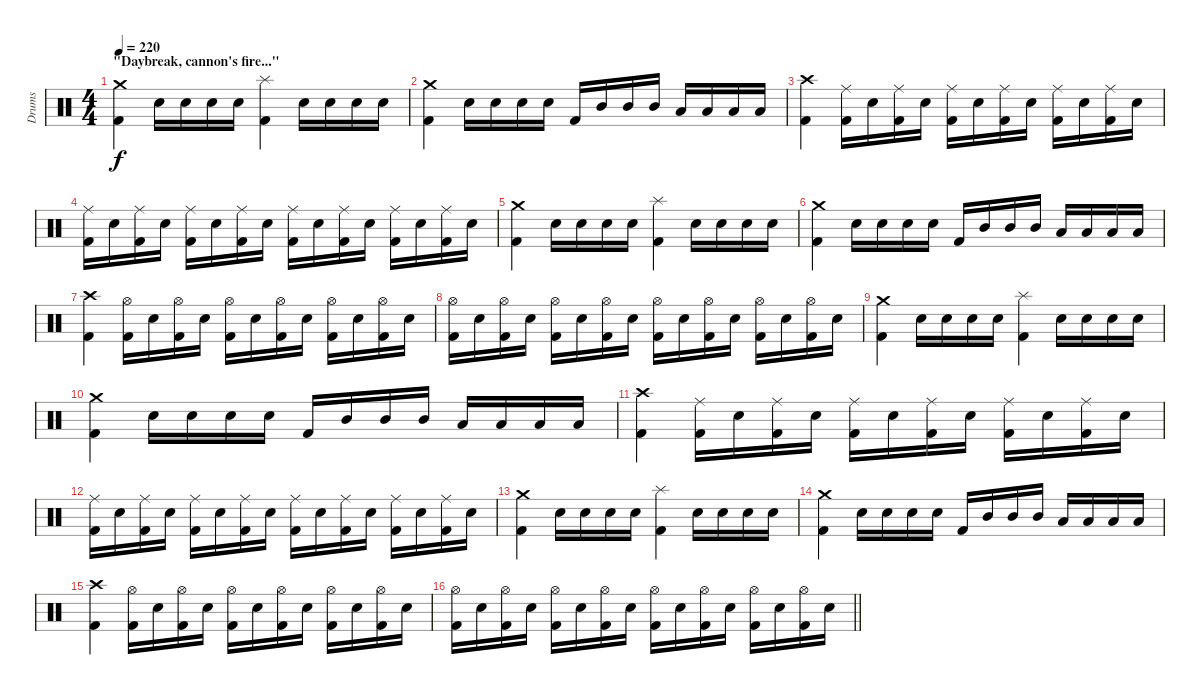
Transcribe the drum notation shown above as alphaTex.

\track ("Drums" "Drums") {instrument percussion}
\staff {score}
\articulation defaults
\ts (4 4)
\section ("" "\"Daybreak, cannon's fire...\"")
\tempo 220
\clef neutral
\ks c
("Crash medium (hit)" "Kick (hit) 2").4{dy f} "Snare (hit) 2".16 "Snare (hit) 2".16 "Snare (hit) 2".16 "Snare (hit) 2".16 ("Splash (hit)" "Kick (hit) 2").4 "Snare (hit) 2".16 "Snare (hit) 2".16 "Snare (hit) 2".16 "Snare (hit) 2".16 |
("Crash medium (hit)" "Kick (hit) 2").4 "Snare (hit) 2".16 "Snare (hit) 2".16 "Snare (hit) 2".16 "Snare (hit) 2".16 "Kick (hit) 2".16 "Mid Tom (hit)".16 "Mid Tom (hit)".16 "Mid Tom (hit)".16 "Low Tom (hit)".16 "Low Tom (hit)".16 "Low Tom (hit)".16 "Low Tom (hit)".16 |
("Crash high (hit)" "Kick (hit) 2").4 ("Ride (middle)" "Kick (hit) 2").16 "Snare (hit) 2".16 ("Ride (middle)" "Kick (hit) 2").16 "Snare (hit) 2".16 ("Ride (middle)" "Kick (hit) 2").16 "Snare (hit) 2".16 ("Ride (middle)" "Kick (hit) 2").16 "Snare (hit) 2".16 ("Ride (middle)" "Kick (hit) 2").16 "Snare (hit) 2".16 ("Ride (middle)" "Kick (hit) 2").16 "Snare (hit) 2".16 |
("Ride (middle)" "Kick (hit) 2").16 "Snare (hit) 2".16 ("Ride (middle)" "Kick (hit) 2").16 "Snare (hit) 2".16 ("Ride (middle)" "Kick (hit) 2").16 "Snare (hit) 2".16 ("Ride (middle)" "Kick (hit) 2").16 "Snare (hit) 2".16 ("Ride (middle)" "Kick (hit) 2").16 "Snare (hit) 2".16 ("Ride (middle)" "Kick (hit) 2").16 "Snare (hit) 2".16 ("Ride (middle)" "Kick (hit) 2").16 "Snare (hit) 2".16 ("Ride (middle)" "Kick (hit) 2").16 "Snare (hit) 2".16 |
("Crash medium (hit)" "Kick (hit) 2").4 "Snare (hit) 2".16 "Snare (hit) 2".16 "Snare (hit) 2".16 "Snare (hit) 2".16 ("Splash (hit)" "Kick (hit) 2").4 "Snare (hit) 2".16 "Snare (hit) 2".16 "Snare (hit) 2".16 "Snare (hit) 2".16 |
("Crash medium (hit)" "Kick (hit) 2").4 "Snare (hit) 2".16 "Snare (hit) 2".16 "Snare (hit) 2".16 "Snare (hit) 2".16 "Kick (hit) 2".16 "Mid Tom (hit)".16 "Mid Tom (hit)".16 "Mid Tom (hit)".16 "Low Tom (hit)".16 "Low Tom (hit)".16 "Low Tom (hit)".16 "Low Tom (hit)".16 |
("Crash high (hit)" "Kick (hit) 2").4 ("Hi-Hat (open)" "Kick (hit) 2").16 "Snare (hit) 2".16 ("Hi-Hat (open)" "Kick (hit) 2").16 "Snare (hit) 2".16 ("Hi-Hat (open)" "Kick (hit) 2").16 "Snare (hit) 2".16 ("Hi-Hat (open)" "Kick (hit) 2").16 "Snare (hit) 2".16 ("Hi-Hat (open)" "Kick (hit) 2").16 "Snare (hit) 2".16 ("Hi-Hat (open)" "Kick (hit) 2").16 "Snare (hit) 2".16 |
("Hi-Hat (open)" "Kick (hit) 2").16 "Snare (hit) 2".16 ("Hi-Hat (open)" "Kick (hit) 2").16 "Snare (hit) 2".16 ("Hi-Hat (open)" "Kick (hit) 2").16 "Snare (hit) 2".16 ("Hi-Hat (open)" "Kick (hit) 2").16 "Snare (hit) 2".16 ("Hi-Hat (open)" "Kick (hit) 2").16 "Snare (hit) 2".16 ("Hi-Hat (open)" "Kick (hit) 2").16 "Snare (hit) 2".16 ("Hi-Hat (open)" "Kick (hit) 2").16 "Snare (hit) 2".16 ("Hi-Hat (open)" "Kick (hit) 2").16 "Snare (hit) 2".16 |
("Crash medium (hit)" "Kick (hit) 2").4 "Snare (hit) 2".16 "Snare (hit) 2".16 "Snare (hit) 2".16 "Snare (hit) 2".16 ("Splash (hit)" "Kick (hit) 2").4 "Snare (hit) 2".16 "Snare (hit) 2".16 "Snare (hit) 2".16 "Snare (hit) 2".16 |
("Crash medium (hit)" "Kick (hit) 2").4 "Snare (hit) 2".16 "Snare (hit) 2".16 "Snare (hit) 2".16 "Snare (hit) 2".16 "Kick (hit) 2".16 "Mid Tom (hit)".16 "Mid Tom (hit)".16 "Mid Tom (hit)".16 "Low Tom (hit)".16 "Low Tom (hit)".16 "Low Tom (hit)".16 "Low Tom (hit)".16 |
("Crash high (hit)" "Kick (hit) 2").4 ("Ride (middle)" "Kick (hit) 2").16 "Snare (hit) 2".16 ("Ride (middle)" "Kick (hit) 2").16 "Snare (hit) 2".16 ("Ride (middle)" "Kick (hit) 2").16 "Snare (hit) 2".16 ("Ride (middle)" "Kick (hit) 2").16 "Snare (hit) 2".16 ("Ride (middle)" "Kick (hit) 2").16 "Snare (hit) 2".16 ("Ride (middle)" "Kick (hit) 2").16 "Snare (hit) 2".16 |
("Ride (middle)" "Kick (hit) 2").16 "Snare (hit) 2".16 ("Ride (middle)" "Kick (hit) 2").16 "Snare (hit) 2".16 ("Ride (middle)" "Kick (hit) 2").16 "Snare (hit) 2".16 ("Ride (middle)" "Kick (hit) 2").16 "Snare (hit) 2".16 ("Ride (middle)" "Kick (hit) 2").16 "Snare (hit) 2".16 ("Ride (middle)" "Kick (hit) 2").16 "Snare (hit) 2".16 ("Ride (middle)" "Kick (hit) 2").16 "Snare (hit) 2".16 ("Ride (middle)" "Kick (hit) 2").16 "Snare (hit) 2".16 |
("Crash medium (hit)" "Kick (hit) 2").4 "Snare (hit) 2".16 "Snare (hit) 2".16 "Snare (hit) 2".16 "Snare (hit) 2".16 ("Splash (hit)" "Kick (hit) 2").4 "Snare (hit) 2".16 "Snare (hit) 2".16 "Snare (hit) 2".16 "Snare (hit) 2".16 |
("Crash medium (hit)" "Kick (hit) 2").4 "Snare (hit) 2".16 "Snare (hit) 2".16 "Snare (hit) 2".16 "Snare (hit) 2".16 "Kick (hit) 2".16 "Mid Tom (hit)".16 "Mid Tom (hit)".16 "Mid Tom (hit)".16 "Low Tom (hit)".16 "Low Tom (hit)".16 "Low Tom (hit)".16 "Low Tom (hit)".16 |
("Crash high (hit)" "Kick (hit) 2").4 ("Hi-Hat (open)" "Kick (hit) 2").16 "Snare (hit) 2".16 ("Hi-Hat (open)" "Kick (hit) 2").16 "Snare (hit) 2".16 ("Hi-Hat (open)" "Kick (hit) 2").16 "Snare (hit) 2".16 ("Hi-Hat (open)" "Kick (hit) 2").16 "Snare (hit) 2".16 ("Hi-Hat (open)" "Kick (hit) 2").16 "Snare (hit) 2".16 ("Hi-Hat (open)" "Kick (hit) 2").16 "Snare (hit) 2".16 |
\barLineRight lightlight
("Hi-Hat (open)" "Kick (hit) 2").16 "Snare (hit) 2".16 ("Hi-Hat (open)" "Kick (hit) 2").16 "Snare (hit) 2".16 ("Hi-Hat (open)" "Kick (hit) 2").16 "Snare (hit) 2".16 ("Hi-Hat (open)" "Kick (hit) 2").16 "Snare (hit) 2".16 ("Hi-Hat (open)" "Kick (hit) 2").16 "Snare (hit) 2".16 ("Hi-Hat (open)" "Kick (hit) 2").16 "Snare (hit) 2".16 ("Hi-Hat (open)" "Kick (hit) 2").16 "Snare (hit) 2".16 ("Hi-Hat (open)" "Kick (hit) 2").16 "Snare (hit) 2".16
